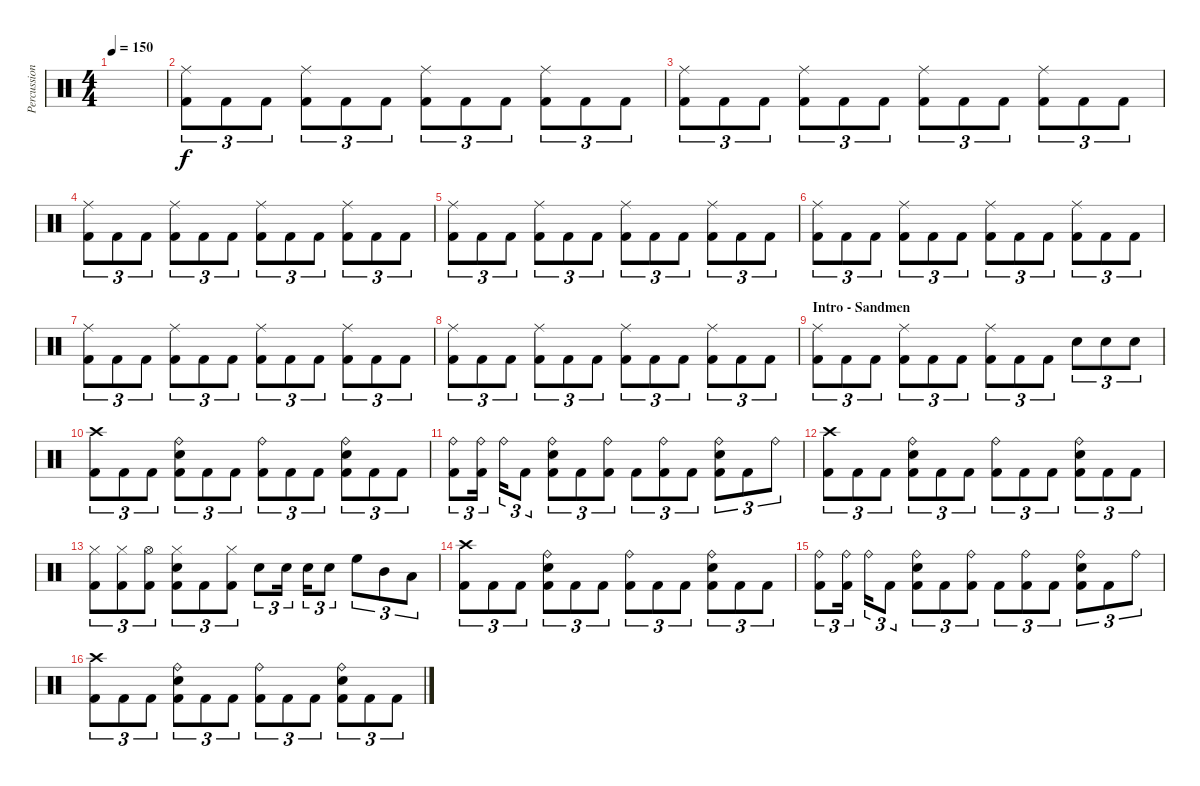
\track ("Percussion" "Percussion") {instrument percussion}
\staff {score}
\articulation defaults
\ts (4 4)
\tempo 150
\clef neutral
\ks c
|
("Ride (middle)" "Kick (hit) 2").8{tu (3 2)} "Kick (hit) 2".8{tu (3 2)} "Kick (hit) 2".8{tu (3 2)} ("Ride (middle)" "Kick (hit) 2").8{tu (3 2)} "Kick (hit) 2".8{tu (3 2)} "Kick (hit) 2".8{tu (3 2)} ("Ride (middle)" "Kick (hit) 2").8{tu (3 2)} "Kick (hit) 2".8{tu (3 2)} "Kick (hit) 2".8{tu (3 2)} ("Ride (middle)" "Kick (hit) 2").8{tu (3 2)} "Kick (hit) 2".8{tu (3 2)} "Kick (hit) 2".8{tu (3 2)} |
("Ride (middle)" "Kick (hit) 2").8{tu (3 2)} "Kick (hit) 2".8{tu (3 2)} "Kick (hit) 2".8{tu (3 2)} ("Ride (middle)" "Kick (hit) 2").8{tu (3 2)} "Kick (hit) 2".8{tu (3 2)} "Kick (hit) 2".8{tu (3 2)} ("Ride (middle)" "Kick (hit) 2").8{tu (3 2)} "Kick (hit) 2".8{tu (3 2)} "Kick (hit) 2".8{tu (3 2)} ("Ride (middle)" "Kick (hit) 2").8{tu (3 2)} "Kick (hit) 2".8{tu (3 2)} "Kick (hit) 2".8{tu (3 2)} |
("Ride (middle)" "Kick (hit) 2").8{tu (3 2)} "Kick (hit) 2".8{tu (3 2)} "Kick (hit) 2".8{tu (3 2)} ("Ride (middle)" "Kick (hit) 2").8{tu (3 2)} "Kick (hit) 2".8{tu (3 2)} "Kick (hit) 2".8{tu (3 2)} ("Ride (middle)" "Kick (hit) 2").8{tu (3 2)} "Kick (hit) 2".8{tu (3 2)} "Kick (hit) 2".8{tu (3 2)} ("Ride (middle)" "Kick (hit) 2").8{tu (3 2)} "Kick (hit) 2".8{tu (3 2)} "Kick (hit) 2".8{tu (3 2)} |
("Ride (middle)" "Kick (hit) 2").8{tu (3 2)} "Kick (hit) 2".8{tu (3 2)} "Kick (hit) 2".8{tu (3 2)} ("Ride (middle)" "Kick (hit) 2").8{tu (3 2)} "Kick (hit) 2".8{tu (3 2)} "Kick (hit) 2".8{tu (3 2)} ("Ride (middle)" "Kick (hit) 2").8{tu (3 2)} "Kick (hit) 2".8{tu (3 2)} "Kick (hit) 2".8{tu (3 2)} ("Ride (middle)" "Kick (hit) 2").8{tu (3 2)} "Kick (hit) 2".8{tu (3 2)} "Kick (hit) 2".8{tu (3 2)} |
("Ride (middle)" "Kick (hit) 2").8{tu (3 2)} "Kick (hit) 2".8{tu (3 2)} "Kick (hit) 2".8{tu (3 2)} ("Ride (middle)" "Kick (hit) 2").8{tu (3 2)} "Kick (hit) 2".8{tu (3 2)} "Kick (hit) 2".8{tu (3 2)} ("Ride (middle)" "Kick (hit) 2").8{tu (3 2)} "Kick (hit) 2".8{tu (3 2)} "Kick (hit) 2".8{tu (3 2)} ("Ride (middle)" "Kick (hit) 2").8{tu (3 2)} "Kick (hit) 2".8{tu (3 2)} "Kick (hit) 2".8{tu (3 2)} |
("Ride (middle)" "Kick (hit) 2").8{tu (3 2)} "Kick (hit) 2".8{tu (3 2)} "Kick (hit) 2".8{tu (3 2)} ("Ride (middle)" "Kick (hit) 2").8{tu (3 2)} "Kick (hit) 2".8{tu (3 2)} "Kick (hit) 2".8{tu (3 2)} ("Ride (middle)" "Kick (hit) 2").8{tu (3 2)} "Kick (hit) 2".8{tu (3 2)} "Kick (hit) 2".8{tu (3 2)} ("Ride (middle)" "Kick (hit) 2").8{tu (3 2)} "Kick (hit) 2".8{tu (3 2)} "Kick (hit) 2".8{tu (3 2)} |
("Ride (middle)" "Kick (hit) 2").8{tu (3 2)} "Kick (hit) 2".8{tu (3 2)} "Kick (hit) 2".8{tu (3 2)} ("Ride (middle)" "Kick (hit) 2").8{tu (3 2)} "Kick (hit) 2".8{tu (3 2)} "Kick (hit) 2".8{tu (3 2)} ("Ride (middle)" "Kick (hit) 2").8{tu (3 2)} "Kick (hit) 2".8{tu (3 2)} "Kick (hit) 2".8{tu (3 2)} ("Ride (middle)" "Kick (hit) 2").8{tu (3 2)} "Kick (hit) 2".8{tu (3 2)} "Kick (hit) 2".8{tu (3 2)} |
\section ("" "Intro - Sandmen")
("Ride (middle)" "Kick (hit) 2").8{tu (3 2) volume 14} "Kick (hit) 2".8{tu (3 2)} "Kick (hit) 2".8{tu (3 2)} ("Ride (middle)" "Kick (hit) 2").8{tu (3 2)} "Kick (hit) 2".8{tu (3 2)} "Kick (hit) 2".8{tu (3 2)} ("Ride (middle)" "Kick (hit) 2").8{tu (3 2)} "Kick (hit) 2".8{tu (3 2)} "Kick (hit) 2".8{tu (3 2)} "Electric Snare (hit)".8{tu (3 2)} "Electric Snare (hit)".8{tu (3 2)} "Electric Snare (hit)".8{tu (3 2)} |
("Crash high (hit)" "Kick (hit) 2").8{tu (3 2)} "Kick (hit) 2".8{tu (3 2)} "Kick (hit) 2".8{tu (3 2)} ("Ride (bell)" "Electric Snare (hit)" "Kick (hit) 2").8{tu (3 2)} "Kick (hit) 2".8{tu (3 2)} "Kick (hit) 2".8{tu (3 2)} ("Ride (bell)" "Kick (hit) 2").8{tu (3 2)} "Kick (hit) 2".8{tu (3 2)} "Kick (hit) 2".8{tu (3 2)} ("Ride (bell)" "Electric Snare (hit)" "Kick (hit) 2").8{tu (3 2)} "Kick (hit) 2".8{tu (3 2)} "Kick (hit) 2".8{tu (3 2)} |
("Ride (bell)" "Kick (hit) 2").8{tu (3 2)} ("Ride (bell)" "Kick (hit) 2").16{tu (3 2)} "Ride (bell)".16{tu (3 2)} "Kick (hit) 2".8{tu (3 2)} ("Ride (bell)" "Electric Snare (hit)" "Kick (hit) 2").8{tu (3 2)} "Kick (hit) 2".8{tu (3 2)} ("Ride (bell)" "Kick (hit) 2").8{tu (3 2)} "Kick (hit) 2".8{tu (3 2)} ("Ride (bell)" "Kick (hit) 2").8{tu (3 2)} "Kick (hit) 2".8{tu (3 2)} ("Ride (bell)" "Electric Snare (hit)" "Kick (hit) 2").8{tu (3 2)} "Kick (hit) 2".8{tu (3 2)} "Ride (bell)".8{tu (3 2)} |
("Crash high (hit)" "Kick (hit) 2").8{tu (3 2)} "Kick (hit) 2".8{tu (3 2)} "Kick (hit) 2".8{tu (3 2)} ("Ride (bell)" "Electric Snare (hit)" "Kick (hit) 2").8{tu (3 2)} "Kick (hit) 2".8{tu (3 2)} "Kick (hit) 2".8{tu (3 2)} ("Ride (bell)" "Kick (hit) 2").8{tu (3 2)} "Kick (hit) 2".8{tu (3 2)} "Kick (hit) 2".8{tu (3 2)} ("Ride (bell)" "Electric Snare (hit)" "Kick (hit) 2").8{tu (3 2)} "Kick (hit) 2".8{tu (3 2)} "Kick (hit) 2".8{tu (3 2)} |
("Hi-Hat (closed)" "Kick (hit) 2").8{tu (3 2)} ("Hi-Hat (closed)" "Kick (hit) 2").8{tu (3 2)} ("Hi-Hat (open)" "Kick (hit) 2").8{tu (3 2)} ("Hi-Hat (closed)" "Electric Snare (hit)" "Kick (hit) 2").8{tu (3 2)} "Kick (hit) 2".8{tu (3 2)} ("Hi-Hat (closed)" "Kick (hit) 2").8{tu (3 2)} "Electric Snare (hit)".8{tu (3 2)} "Electric Snare (hit)".16{tu (3 2)} "Electric Snare (hit)".16{tu (3 2)} "Electric Snare (hit)".8{tu (3 2)} "High Floor Tom (hit)".8{tu (3 2)} "Mid Tom (hit)".8{tu (3 2)} "Low Floor Tom (hit)".8{tu (3 2)} |
("Crash high (hit)" "Kick (hit) 2").8{tu (3 2)} "Kick (hit) 2".8{tu (3 2)} "Kick (hit) 2".8{tu (3 2)} ("Ride (bell)" "Electric Snare (hit)" "Kick (hit) 2").8{tu (3 2)} "Kick (hit) 2".8{tu (3 2)} "Kick (hit) 2".8{tu (3 2)} ("Ride (bell)" "Kick (hit) 2").8{tu (3 2)} "Kick (hit) 2".8{tu (3 2)} "Kick (hit) 2".8{tu (3 2)} ("Ride (bell)" "Electric Snare (hit)" "Kick (hit) 2").8{tu (3 2)} "Kick (hit) 2".8{tu (3 2)} "Kick (hit) 2".8{tu (3 2)} |
("Ride (bell)" "Kick (hit) 2").8{tu (3 2)} ("Ride (bell)" "Kick (hit) 2").16{tu (3 2)} "Ride (bell)".16{tu (3 2)} "Kick (hit) 2".8{tu (3 2)} ("Ride (bell)" "Electric Snare (hit)" "Kick (hit) 2").8{tu (3 2)} "Kick (hit) 2".8{tu (3 2)} ("Ride (bell)" "Kick (hit) 2").8{tu (3 2)} "Kick (hit) 2".8{tu (3 2)} ("Ride (bell)" "Kick (hit) 2").8{tu (3 2)} "Kick (hit) 2".8{tu (3 2)} ("Ride (bell)" "Electric Snare (hit)" "Kick (hit) 2").8{tu (3 2)} "Kick (hit) 2".8{tu (3 2)} "Ride (bell)".8{tu (3 2)} |
("Crash high (hit)" "Kick (hit) 2").8{tu (3 2)} "Kick (hit) 2".8{tu (3 2)} "Kick (hit) 2".8{tu (3 2)} ("Ride (bell)" "Electric Snare (hit)" "Kick (hit) 2").8{tu (3 2)} "Kick (hit) 2".8{tu (3 2)} "Kick (hit) 2".8{tu (3 2)} ("Ride (bell)" "Kick (hit) 2").8{tu (3 2)} "Kick (hit) 2".8{tu (3 2)} "Kick (hit) 2".8{tu (3 2)} ("Ride (bell)" "Electric Snare (hit)" "Kick (hit) 2").8{tu (3 2)} "Kick (hit) 2".8{tu (3 2)} "Kick (hit) 2".8{tu (3 2)}
